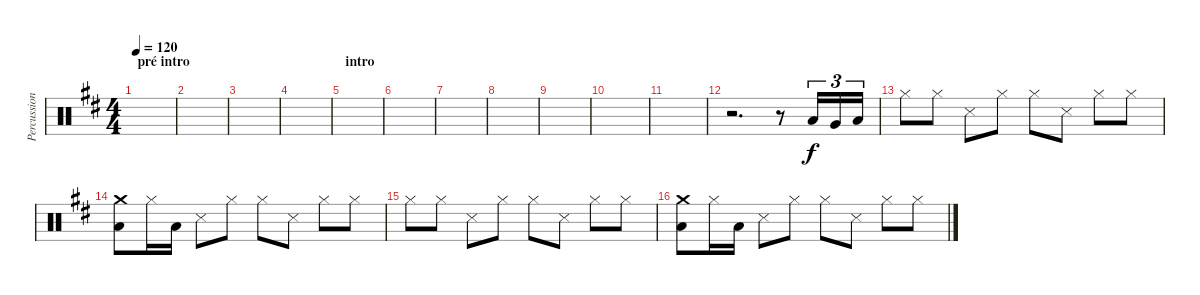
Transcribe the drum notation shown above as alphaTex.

\track ("Percussions" "Percussion") {instrument percussion}
\staff {score}
\articulation defaults
\ts (4 4)
\section ("" "pré intro")
\tempo 120
\clef neutral
\ks d
|
|
|
|
\section ("" "intro")
|
|
|
|
|
|
|
r.2{d} r.8 "Low Tom (hit)".16{tu (3 2)} "Very Low Tom (hit)".16{tu (3 2)} "Low Floor Tom (hit)".16{tu (3 2)} |
"Hi-Hat (closed)".8 "Hi-Hat (closed)".8 "Snare (side stick) 3".8 "Hi-Hat (closed)".8 "Hi-Hat (closed)".8 "Snare (side stick) 3".8 "Hi-Hat (closed)".8 "Hi-Hat (closed)".8 |
("Crash medium (hit)" "Low Floor Tom (hit)").8 "Hi-Hat (closed)".16 "Low Floor Tom (hit)".16 "Snare (side stick) 3".8 "Hi-Hat (closed)".8 "Hi-Hat (closed)".8 "Snare (side stick) 3".8 "Hi-Hat (closed)".8 "Hi-Hat (closed)".8 |
"Hi-Hat (closed)".8 "Hi-Hat (closed)".8 "Snare (side stick) 3".8 "Hi-Hat (closed)".8 "Hi-Hat (closed)".8 "Snare (side stick) 3".8 "Hi-Hat (closed)".8 "Hi-Hat (closed)".8 |
("Crash medium (hit)" "Low Floor Tom (hit)").8 "Hi-Hat (closed)".16 "Low Floor Tom (hit)".16 "Snare (side stick) 3".8 "Hi-Hat (closed)".8 "Hi-Hat (closed)".8 "Snare (side stick) 3".8 "Hi-Hat (closed)".8 "Hi-Hat (closed)".8
